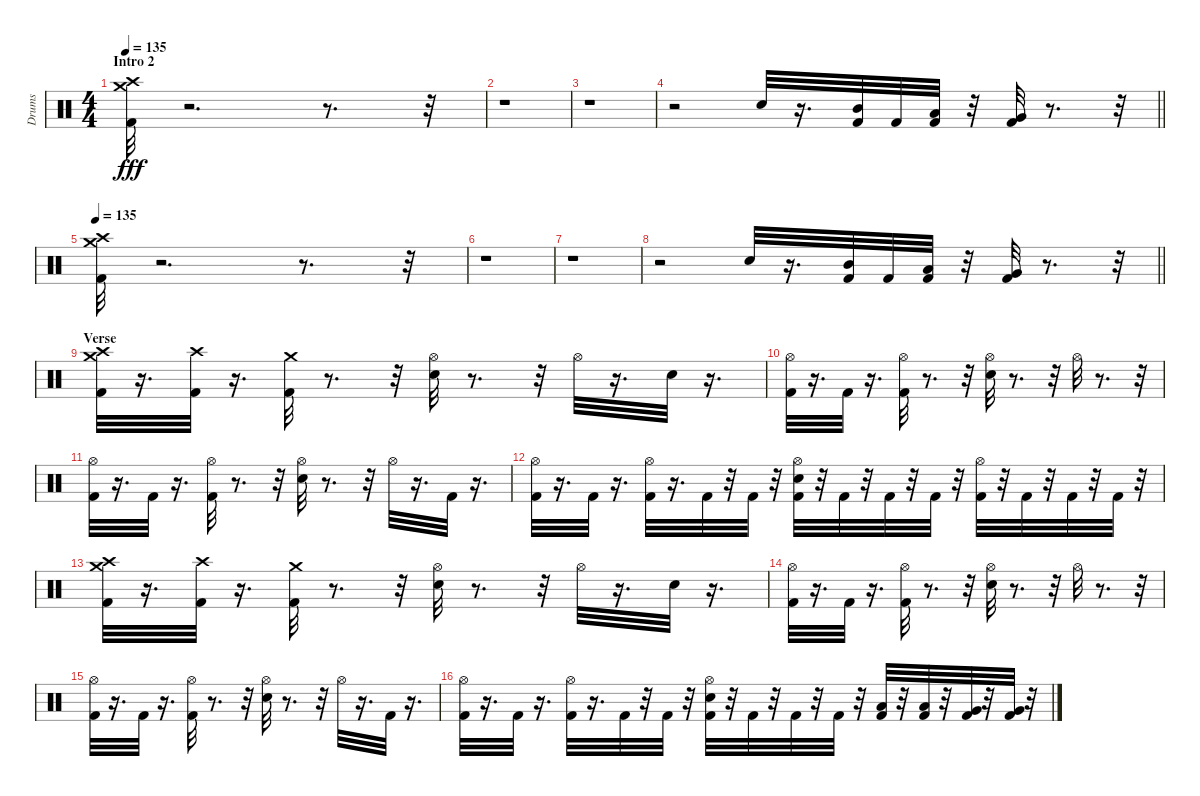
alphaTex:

\track ("Drums" "Drums") {instrument percussion}
\staff {score}
\articulation defaults
\ts (4 4)
\section ("" "Intro 2")
\tempo 135
\clef neutral
\ks c
("Crash medium (hit)" "Crash high (hit)" "Kick (hit) 2").32{dy fff} r.2{d} r.8{d} r.32 |
r.1 |
r.1 |
\barLineRight lightlight
r.2 "Snare (hit) 2".32 r.16{d} ("Mid Tom (hit)" "Kick (hit) 2").32 "Kick (hit) 2".32 ("Low Tom (hit)" "Kick (hit) 2").32 r.32 ("Very Low Tom (hit)" "Kick (hit) 2").32 r.8{d} r.32 |
\tempo 135
("Crash medium (hit)" "Crash high (hit)" "Kick (hit) 2").32 r.2{d} r.8{d} r.32 |
r.1 |
r.1 |
\barLineRight lightlight
r.2 "Snare (hit) 2".32 r.16{d} ("Mid Tom (hit)" "Kick (hit) 2").32 "Kick (hit) 2".32 ("Low Tom (hit)" "Kick (hit) 2").32 r.32 ("Very Low Tom (hit)" "Kick (hit) 2").32 r.8{d} r.32 |
\section ("" "Verse")
("Crash medium (hit)" "Crash high (hit)" "Kick (hit) 2").32 r.16{d} ("Crash high (hit)" "Kick (hit) 2").32 r.16{d} ("Crash medium (hit)" "Kick (hit) 2").32 r.8{d} r.32 ("Hi-Hat (open)" "Snare (hit) 2").32 r.8{d} r.32 "Hi-Hat (open)".32 r.16{d} "Snare (hit) 2".32 r.16{d} |
("Kick (hit) 2" "Hi-Hat (open)").32 r.16{d} "Kick (hit) 2".32 r.16{d} ("Kick (hit) 2" "Hi-Hat (open)").32 r.8{d} r.32 ("Snare (hit) 2" "Hi-Hat (open)").32 r.8{d} r.32 "Hi-Hat (open)".32 r.8{d} r.32 |
("Kick (hit) 2" "Hi-Hat (open)").32 r.16{d} "Kick (hit) 2".32 r.16{d} ("Kick (hit) 2" "Hi-Hat (open)").32 r.8{d} r.32 ("Snare (hit) 2" "Hi-Hat (open)").32 r.8{d} r.32 "Hi-Hat (open)".32 r.16{d} "Kick (hit) 2".32 r.16{d} |
("Kick (hit) 2" "Hi-Hat (open)").32 r.16{d} "Kick (hit) 2".32 r.16{d} ("Kick (hit) 2" "Hi-Hat (open)").32 r.16{d} "Kick (hit) 2".32 r.32 "Kick (hit) 2".32 r.32 ("Kick (hit) 2" "Snare (hit) 2" "Hi-Hat (open)").32 r.32 "Kick (hit) 2".32 r.32 "Kick (hit) 2".32 r.32 "Kick (hit) 2".32 r.32 ("Kick (hit) 2" "Hi-Hat (open)").32 r.32 "Kick (hit) 2".32 r.32 "Kick (hit) 2".32 r.32 "Kick (hit) 2".32 r.32 |
("Crash medium (hit)" "Crash high (hit)" "Kick (hit) 2").32 r.16{d} ("Crash high (hit)" "Kick (hit) 2").32 r.16{d} ("Crash medium (hit)" "Kick (hit) 2").32 r.8{d} r.32 ("Hi-Hat (open)" "Snare (hit) 2").32 r.8{d} r.32 "Hi-Hat (open)".32 r.16{d} "Snare (hit) 2".32 r.16{d} |
("Kick (hit) 2" "Hi-Hat (open)").32 r.16{d} "Kick (hit) 2".32 r.16{d} ("Kick (hit) 2" "Hi-Hat (open)").32 r.8{d} r.32 ("Snare (hit) 2" "Hi-Hat (open)").32 r.8{d} r.32 "Hi-Hat (open)".32 r.8{d} r.32 |
("Kick (hit) 2" "Hi-Hat (open)").32 r.16{d} "Kick (hit) 2".32 r.16{d} ("Kick (hit) 2" "Hi-Hat (open)").32 r.8{d} r.32 ("Snare (hit) 2" "Hi-Hat (open)").32 r.8{d} r.32 "Hi-Hat (open)".32 r.16{d} "Kick (hit) 2".32 r.16{d} |
("Kick (hit) 2" "Hi-Hat (open)").32 r.16{d} "Kick (hit) 2".32 r.16{d} ("Kick (hit) 2" "Hi-Hat (open)").32 r.16{d} "Kick (hit) 2".32 r.32 "Kick (hit) 2".32 r.32 ("Kick (hit) 2" "Snare (hit) 2" "Hi-Hat (open)").32 r.32 "Kick (hit) 2".32 r.32 "Kick (hit) 2".32 r.32 "Kick (hit) 2".32 r.32 ("Low Tom (hit)" "Kick (hit) 2").32 r.32 ("Low Tom (hit)" "Kick (hit) 2").32 r.32 ("Very Low Tom (hit)" "Kick (hit) 2").32 r.32 ("Very Low Tom (hit)" "Kick (hit) 2").32 r.32
